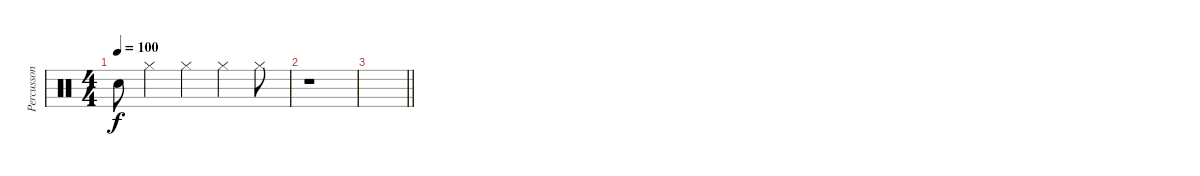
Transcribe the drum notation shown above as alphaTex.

\track ("Percusson" "Percusson") {instrument percussion}
\staff {score}
\articulation defaults
\ts (4 4)
\tempo 100
\clef neutral
\ks c "Snare (hit)"{t}.8{dy f} "Hi-Hat (closed)".4 "Hi-Hat (closed)".4 "Hi-Hat (closed)".4 "Hi-Hat (closed)".8
|
r.1 |
\barLineRight lightlight
